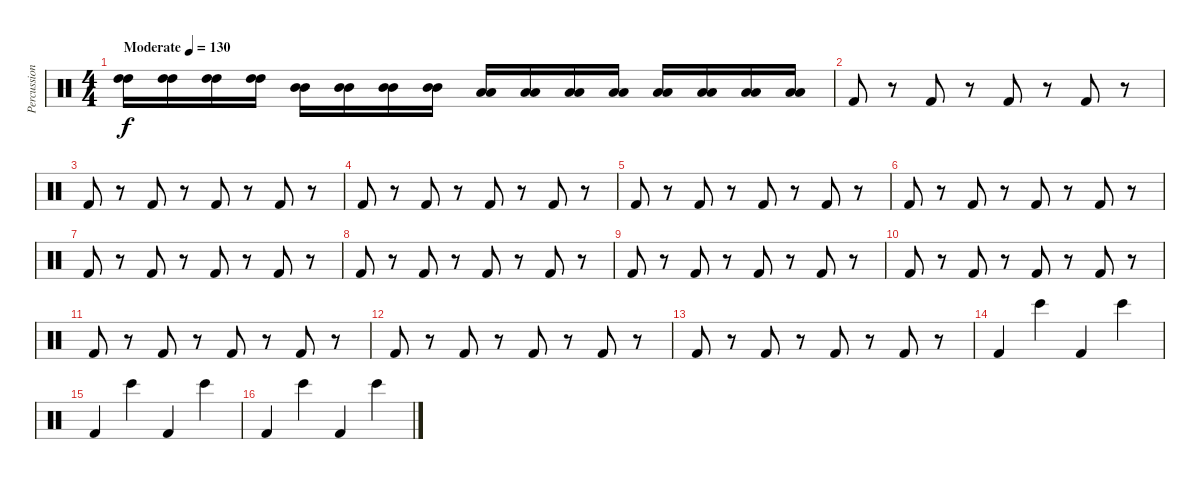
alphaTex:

\track ("Percussion" "Percussion") {instrument percussion}
\staff {score}
\articulation defaults
\ts (4 4)
\tempo (130 "Moderate")
\clef neutral
\ks c
("High Tom (hit)" "High Tom (hit)").16{dy f} ("High Tom (hit)" "High Tom (hit)").16 ("High Tom (hit)" "High Tom (hit)").16 ("High Tom (hit)" "High Tom (hit)").16 ("Mid Tom (hit)" "Mid Tom (hit)").16 ("Mid Tom (hit)" "Mid Tom (hit)").16 ("Mid Tom (hit)" "Mid Tom (hit)").16 ("Mid Tom (hit)" "Mid Tom (hit)").16 ("Low Tom (hit)" "Low Tom (hit)").16 ("Low Tom (hit)" "Low Tom (hit)").16 ("Low Tom (hit)" "Low Tom (hit)").16 ("Low Tom (hit)" "Low Tom (hit)").16 ("Low Floor Tom (hit)" "Low Floor Tom (hit)").16 ("Low Floor Tom (hit)" "Low Floor Tom (hit)").16 ("Low Floor Tom (hit)" "Low Floor Tom (hit)").16 ("Low Floor Tom (hit)" "Low Floor Tom (hit)").16 |
"Kick (hit) 2".8 r.8 "Kick (hit) 2".8 r.8 "Kick (hit) 2".8 r.8 "Kick (hit) 2".8 r.8 |
"Kick (hit) 2".8 r.8 "Kick (hit) 2".8 r.8 "Kick (hit) 2".8 r.8 "Kick (hit) 2".8 r.8 |
"Kick (hit) 2".8 r.8 "Kick (hit) 2".8 r.8 "Kick (hit) 2".8 r.8 "Kick (hit) 2".8 r.8 |
"Kick (hit) 2".8 r.8 "Kick (hit) 2".8 r.8 "Kick (hit) 2".8 r.8 "Kick (hit) 2".8 r.8 |
"Kick (hit) 2".8 r.8 "Kick (hit) 2".8 r.8 "Kick (hit) 2".8 r.8 "Kick (hit) 2".8 r.8 |
"Kick (hit) 2".8 r.8 "Kick (hit) 2".8 r.8 "Kick (hit) 2".8 r.8 "Kick (hit) 2".8 r.8 |
"Kick (hit) 2".8 r.8 "Kick (hit) 2".8 r.8 "Kick (hit) 2".8 r.8 "Kick (hit) 2".8 r.8 |
"Kick (hit) 2".8 r.8 "Kick (hit) 2".8 r.8 "Kick (hit) 2".8 r.8 "Kick (hit) 2".8 r.8 |
"Kick (hit) 2".8 r.8 "Kick (hit) 2".8 r.8 "Kick (hit) 2".8 r.8 "Kick (hit) 2".8 r.8 |
"Kick (hit) 2".8 r.8 "Kick (hit) 2".8 r.8 "Kick (hit) 2".8 r.8 "Kick (hit) 2".8 r.8 |
"Kick (hit) 2".8 r.8 "Kick (hit) 2".8 r.8 "Kick (hit) 2".8 r.8 "Kick (hit) 2".8 r.8 |
"Kick (hit) 2".8 r.8 "Kick (hit) 2".8 r.8 "Kick (hit) 2".8 r.8 "Kick (hit) 2".8 r.8 |
"Kick (hit) 2".4 "Bongo High (hit)".4 "Kick (hit) 2".4 "Bongo High (hit)".4 |
"Kick (hit) 2".4 "Bongo High (hit)".4 "Kick (hit) 2".4 "Bongo High (hit)".4 |
"Kick (hit) 2".4 "Bongo High (hit)".4 "Kick (hit) 2".4 "Bongo High (hit)".4
